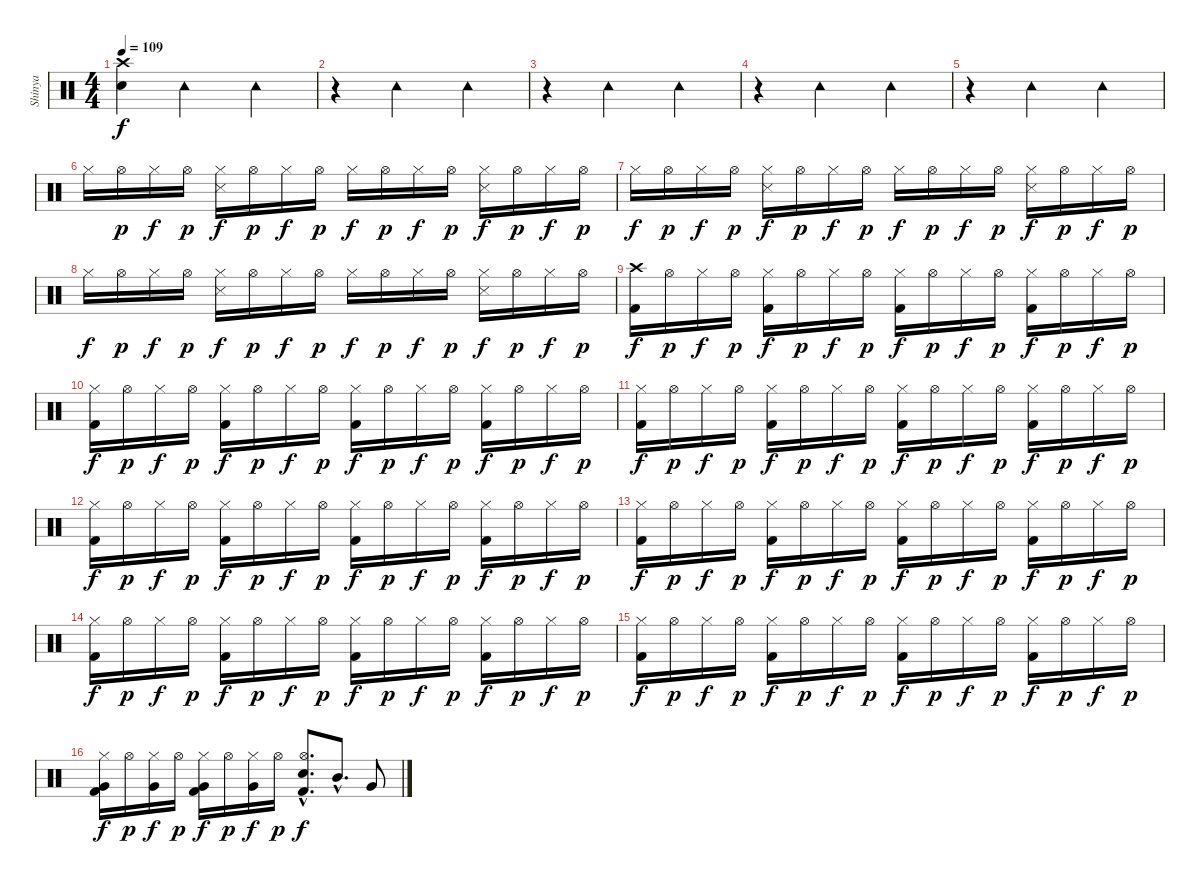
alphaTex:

\track ("Shinya" "Shinya") {instrument percussion}
\staff {score}
\articulation defaults
\ts (4 4)
\tempo 109
\clef neutral
\ks c
("Crash high (hit)" "Snare (hit) 2").4{dy f} "Tambourine (hit)".2 "Tambourine (hit)".4 |
r.4 "Tambourine (hit)".2 "Tambourine (hit)".4 |
r.4 "Tambourine (hit)".2 "Tambourine (hit)".4 |
r.4 "Tambourine (hit)".2 "Tambourine (hit)".4 |
r.4 "Tambourine (hit)".2 "Tambourine (hit)".4 |
"Hi-Hat (closed)".16 "Hi-Hat (open)".16{dy p} "Hi-Hat (closed)".16{dy f} "Hi-Hat (open)".16{dy p} ("Hi-Hat (closed)" "Snare (side stick) 3").16{dy f} "Hi-Hat (open)".16{dy p} "Hi-Hat (closed)".16{dy f} "Hi-Hat (open)".16{dy p} "Hi-Hat (closed)".16{dy f} "Hi-Hat (open)".16{dy p} "Hi-Hat (closed)".16{dy f} "Hi-Hat (open)".16{dy p} ("Hi-Hat (closed)" "Snare (side stick) 3").16{dy f} "Hi-Hat (open)".16{dy p} "Hi-Hat (closed)".16{dy f} "Hi-Hat (open)".16{dy p} |
"Hi-Hat (closed)".16{dy f} "Hi-Hat (open)".16{dy p} "Hi-Hat (closed)".16{dy f} "Hi-Hat (open)".16{dy p} ("Hi-Hat (closed)" "Snare (side stick) 3").16{dy f} "Hi-Hat (open)".16{dy p} "Hi-Hat (closed)".16{dy f} "Hi-Hat (open)".16{dy p} "Hi-Hat (closed)".16{dy f} "Hi-Hat (open)".16{dy p} "Hi-Hat (closed)".16{dy f} "Hi-Hat (open)".16{dy p} ("Hi-Hat (closed)" "Snare (side stick) 3").16{dy f} "Hi-Hat (open)".16{dy p} "Hi-Hat (closed)".16{dy f} "Hi-Hat (open)".16{dy p} |
"Hi-Hat (closed)".16{dy f} "Hi-Hat (open)".16{dy p} "Hi-Hat (closed)".16{dy f} "Hi-Hat (open)".16{dy p} ("Hi-Hat (closed)" "Snare (side stick) 3").16{dy f} "Hi-Hat (open)".16{dy p} "Hi-Hat (closed)".16{dy f} "Hi-Hat (open)".16{dy p} "Hi-Hat (closed)".16{dy f} "Hi-Hat (open)".16{dy p} "Hi-Hat (closed)".16{dy f} "Hi-Hat (open)".16{dy p} ("Hi-Hat (closed)" "Snare (side stick) 3").16{dy f} "Hi-Hat (open)".16{dy p} "Hi-Hat (closed)".16{dy f} "Hi-Hat (open)".16{dy p} |
("Crash high (hit)" "Kick (hit) 2").16{dy f} "Hi-Hat (open)".16{dy p} "Hi-Hat (closed)".16{dy f} "Hi-Hat (open)".16{dy p} ("Hi-Hat (closed)" "Kick (hit) 2").16{dy f} "Hi-Hat (open)".16{dy p} "Hi-Hat (closed)".16{dy f} "Hi-Hat (open)".16{dy p} ("Hi-Hat (closed)" "Kick (hit) 2").16{dy f} "Hi-Hat (open)".16{dy p} "Hi-Hat (closed)".16{dy f} "Hi-Hat (open)".16{dy p} ("Hi-Hat (closed)" "Kick (hit) 2").16{dy f} "Hi-Hat (open)".16{dy p} "Hi-Hat (closed)".16{dy f} "Hi-Hat (open)".16{dy p} |
("Hi-Hat (closed)" "Kick (hit) 2").16{dy f} "Hi-Hat (open)".16{dy p} "Hi-Hat (closed)".16{dy f} "Hi-Hat (open)".16{dy p} ("Hi-Hat (closed)" "Kick (hit) 2").16{dy f} "Hi-Hat (open)".16{dy p} "Hi-Hat (closed)".16{dy f} "Hi-Hat (open)".16{dy p} ("Hi-Hat (closed)" "Kick (hit) 2").16{dy f} "Hi-Hat (open)".16{dy p} "Hi-Hat (closed)".16{dy f} "Hi-Hat (open)".16{dy p} ("Hi-Hat (closed)" "Kick (hit) 2").16{dy f} "Hi-Hat (open)".16{dy p} "Hi-Hat (closed)".16{dy f} "Hi-Hat (open)".16{dy p} |
("Hi-Hat (closed)" "Kick (hit) 2").16{dy f} "Hi-Hat (open)".16{dy p} "Hi-Hat (closed)".16{dy f} "Hi-Hat (open)".16{dy p} ("Hi-Hat (closed)" "Kick (hit) 2").16{dy f} "Hi-Hat (open)".16{dy p} "Hi-Hat (closed)".16{dy f} "Hi-Hat (open)".16{dy p} ("Hi-Hat (closed)" "Kick (hit) 2").16{dy f} "Hi-Hat (open)".16{dy p} "Hi-Hat (closed)".16{dy f} "Hi-Hat (open)".16{dy p} ("Hi-Hat (closed)" "Kick (hit) 2").16{dy f} "Hi-Hat (open)".16{dy p} "Hi-Hat (closed)".16{dy f} "Hi-Hat (open)".16{dy p} |
("Hi-Hat (closed)" "Kick (hit) 2").16{dy f} "Hi-Hat (open)".16{dy p} "Hi-Hat (closed)".16{dy f} "Hi-Hat (open)".16{dy p} ("Hi-Hat (closed)" "Kick (hit) 2").16{dy f} "Hi-Hat (open)".16{dy p} "Hi-Hat (closed)".16{dy f} "Hi-Hat (open)".16{dy p} ("Hi-Hat (closed)" "Kick (hit) 2").16{dy f} "Hi-Hat (open)".16{dy p} "Hi-Hat (closed)".16{dy f} "Hi-Hat (open)".16{dy p} ("Hi-Hat (closed)" "Kick (hit) 2").16{dy f} "Hi-Hat (open)".16{dy p} "Hi-Hat (closed)".16{dy f} "Hi-Hat (open)".16{dy p} |
("Hi-Hat (closed)" "Kick (hit) 2").16{dy f} "Hi-Hat (open)".16{dy p} "Hi-Hat (closed)".16{dy f} "Hi-Hat (open)".16{dy p} ("Hi-Hat (closed)" "Kick (hit) 2").16{dy f} "Hi-Hat (open)".16{dy p} "Hi-Hat (closed)".16{dy f} "Hi-Hat (open)".16{dy p} ("Hi-Hat (closed)" "Kick (hit) 2").16{dy f} "Hi-Hat (open)".16{dy p} "Hi-Hat (closed)".16{dy f} "Hi-Hat (open)".16{dy p} ("Hi-Hat (closed)" "Kick (hit) 2").16{dy f} "Hi-Hat (open)".16{dy p} "Hi-Hat (closed)".16{dy f} "Hi-Hat (open)".16{dy p} |
("Hi-Hat (closed)" "Kick (hit) 2").16{dy f} "Hi-Hat (open)".16{dy p} "Hi-Hat (closed)".16{dy f} "Hi-Hat (open)".16{dy p} ("Hi-Hat (closed)" "Kick (hit) 2").16{dy f} "Hi-Hat (open)".16{dy p} "Hi-Hat (closed)".16{dy f} "Hi-Hat (open)".16{dy p} ("Hi-Hat (closed)" "Kick (hit) 2").16{dy f} "Hi-Hat (open)".16{dy p} "Hi-Hat (closed)".16{dy f} "Hi-Hat (open)".16{dy p} ("Hi-Hat (closed)" "Kick (hit) 2").16{dy f} "Hi-Hat (open)".16{dy p} "Hi-Hat (closed)".16{dy f} "Hi-Hat (open)".16{dy p} |
("Hi-Hat (closed)" "Kick (hit) 2").16{dy f} "Hi-Hat (open)".16{dy p} "Hi-Hat (closed)".16{dy f} "Hi-Hat (open)".16{dy p} ("Hi-Hat (closed)" "Kick (hit) 2").16{dy f} "Hi-Hat (open)".16{dy p} "Hi-Hat (closed)".16{dy f} "Hi-Hat (open)".16{dy p} ("Hi-Hat (closed)" "Kick (hit) 2").16{dy f} "Hi-Hat (open)".16{dy p} "Hi-Hat (closed)".16{dy f} "Hi-Hat (open)".16{dy p} ("Hi-Hat (closed)" "Kick (hit) 2").16{dy f} "Hi-Hat (open)".16{dy p} "Hi-Hat (closed)".16{dy f} "Hi-Hat (open)".16{dy p} |
("Hi-Hat (closed)" "Very Low Tom (hit)" "Kick (hit) 2").16{dy f} "Hi-Hat (open)".16{dy p} ("Hi-Hat (closed)" "Very Low Tom (hit)").16{dy f} "Hi-Hat (open)".16{dy p} ("Hi-Hat (closed)" "Very Low Tom (hit)" "Kick (hit) 2").16{dy f} "Hi-Hat (open)".16{dy p} ("Hi-Hat (closed)" "Very Low Tom (hit)").16{dy f} "Hi-Hat (open)".16{dy p} ("Hi-Hat (open)"{hac} "Snare (hit) 2"{hac} "Kick (hit) 2"{hac}).8{d dy f} "Mid Tom (hit)"{hac}.8{d} "Very Low Tom (hit)".8
